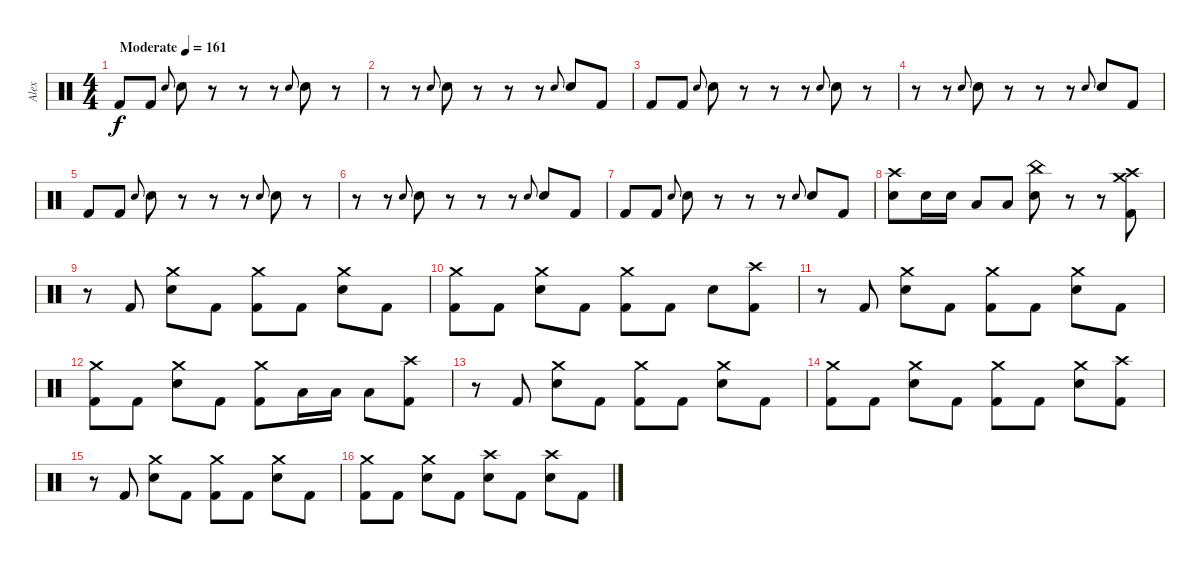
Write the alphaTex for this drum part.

\track ("Alex" "Alex") {instrument percussion}
\staff
\articulation defaults
\ts (4 4)
\tempo (161 "Moderate")
\clef neutral
\ks c "Kick (hit) 2".8{dy f} "Kick (hit) 2".8 "Electric Snare (hit)".8{gr onbeat} "Electric Snare (hit)".8
r.8 r.8 r.8 "Electric Snare (hit)".8{gr onbeat} "Electric Snare (hit)".8 r.8 |
r.8 r.8 "Electric Snare (hit)".8{gr onbeat} "Electric Snare (hit)".8 r.8 r.8 r.8 "Electric Snare (hit)".8{gr onbeat} "Electric Snare (hit)".8 "Kick (hit) 2".8 |
"Kick (hit) 2".8 "Kick (hit) 2".8 "Electric Snare (hit)".8{gr onbeat} "Electric Snare (hit)".8 r.8 r.8 r.8 "Electric Snare (hit)".8{gr onbeat} "Electric Snare (hit)".8 r.8 |
r.8 r.8 "Electric Snare (hit)".8{gr onbeat} "Electric Snare (hit)".8 r.8 r.8 r.8 "Electric Snare (hit)".8{gr onbeat} "Electric Snare (hit)".8 "Kick (hit) 2".8 |
"Kick (hit) 2".8 "Kick (hit) 2".8 "Electric Snare (hit)".8{gr onbeat} "Electric Snare (hit)".8 r.8 r.8 r.8 "Electric Snare (hit)".8{gr onbeat} "Electric Snare (hit)".8 r.8 |
r.8 r.8 "Electric Snare (hit)".8{gr onbeat} "Electric Snare (hit)".8 r.8 r.8 r.8 "Electric Snare (hit)".8{gr onbeat} "Electric Snare (hit)".8 "Kick (hit) 2".8 |
"Kick (hit) 2".8 "Kick (hit) 2".8 "Electric Snare (hit)".8{gr onbeat} "Electric Snare (hit)".8 r.8 r.8 r.8 "Electric Snare (hit)".8{gr onbeat} "Electric Snare (hit)".8 "Kick (hit) 2".8 |
("Crash high (hit)" "Electric Snare (hit)").8 "Electric Snare (hit)".16 "Electric Snare (hit)".16 "Low Tom (hit)".8 "Low Tom (hit)".8 ("China (hit)" "Electric Snare (hit)").8 r.8 r.8 ("Crash medium (hit)" "Crash high (hit)" "Kick (hit) 2").8 |
r.8 "Kick (hit) 2".8 ("Crash medium (hit)" "Electric Snare (hit)").8 "Kick (hit) 2".8 ("Crash medium (hit)" "Kick (hit) 2").8 "Kick (hit) 2".8 ("Crash medium (hit)" "Electric Snare (hit)").8 "Kick (hit) 2".8 |
("Crash medium (hit)" "Kick (hit) 2").8 "Kick (hit) 2".8 ("Crash medium (hit)" "Electric Snare (hit)").8 "Kick (hit) 2".8 ("Crash medium (hit)" "Kick (hit) 2").8 "Kick (hit) 2".8 "Electric Snare (hit)".8 ("Crash high (hit)" "Kick (hit) 2").8 |
r.8 "Kick (hit) 2".8 ("Crash medium (hit)" "Electric Snare (hit)").8 "Kick (hit) 2".8 ("Crash medium (hit)" "Kick (hit) 2").8 "Kick (hit) 2".8 ("Crash medium (hit)" "Electric Snare (hit)").8 "Kick (hit) 2".8 |
("Crash medium (hit)" "Kick (hit) 2").8 "Kick (hit) 2".8 ("Crash medium (hit)" "Electric Snare (hit)").8 "Kick (hit) 2".8 ("Crash medium (hit)" "Kick (hit) 2").8 "Low Tom (hit)".16 "Low Tom (hit)".16 "Low Floor Tom (hit)".8 ("Crash high (hit)" "Kick (hit) 2").8 |
r.8 "Kick (hit) 2".8 ("Crash medium (hit)" "Electric Snare (hit)").8 "Kick (hit) 2".8 ("Crash medium (hit)" "Kick (hit) 2").8 "Kick (hit) 2".8 ("Crash medium (hit)" "Electric Snare (hit)").8 "Kick (hit) 2".8 |
("Crash medium (hit)" "Kick (hit) 2").8 "Kick (hit) 2".8 ("Crash medium (hit)" "Electric Snare (hit)").8 "Kick (hit) 2".8 ("Crash medium (hit)" "Kick (hit) 2").8 "Kick (hit) 2".8 ("Crash medium (hit)" "Electric Snare (hit)").8 ("Crash high (hit)" "Kick (hit) 2").8 |
r.8 "Kick (hit) 2".8 ("Crash medium (hit)" "Electric Snare (hit)").8 "Kick (hit) 2".8 ("Crash medium (hit)" "Kick (hit) 2").8 "Kick (hit) 2".8 ("Crash medium (hit)" "Electric Snare (hit)").8 "Kick (hit) 2".8 |
("Crash medium (hit)" "Kick (hit) 2").8 "Kick (hit) 2".8 ("Crash medium (hit)" "Electric Snare (hit)").8 "Kick (hit) 2".8 ("Crash high (hit)" "Electric Snare (hit)").8 "Kick (hit) 2".8 ("Crash high (hit)" "Electric Snare (hit)").8 "Kick (hit) 2".8
